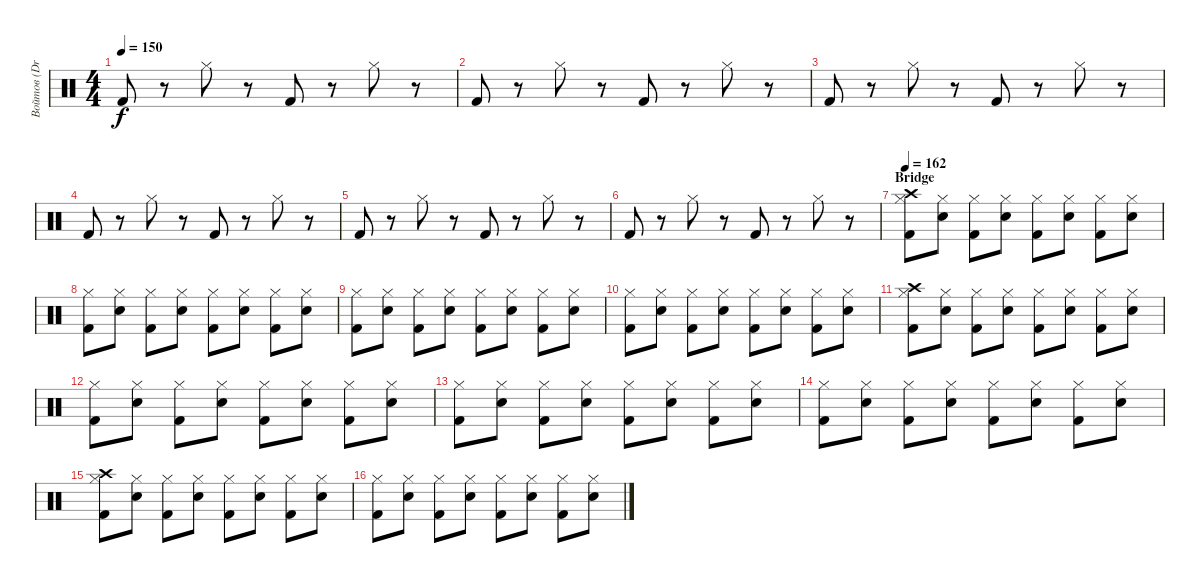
\track ("Войтов (Drums)" "Войтов (Dr") {instrument percussion}
\staff {score}
\articulation defaults
\ts (4 4)
\tempo 150
\clef neutral
\ks c "Kick (hit) 2".8{dy f}
r.8 "Hi-Hat (closed)".8 r.8 "Kick (hit) 2".8 r.8 "Hi-Hat (closed)".8 r.8 |
"Kick (hit) 2".8 r.8 "Hi-Hat (closed)".8 r.8 "Kick (hit) 2".8 r.8 "Hi-Hat (closed)".8 r.8 |
"Kick (hit) 2".8 r.8 "Hi-Hat (closed)".8 r.8 "Kick (hit) 2".8 r.8 "Hi-Hat (closed)".8 r.8 |
"Kick (hit) 2".8 r.8 "Hi-Hat (closed)".8 r.8 "Kick (hit) 2".8 r.8 "Hi-Hat (closed)".8 r.8 |
"Kick (hit) 2".8 r.8 "Hi-Hat (closed)".8 r.8 "Kick (hit) 2".8 r.8 "Hi-Hat (closed)".8 r.8 |
"Kick (hit) 2".8 r.8 "Hi-Hat (closed)".8 r.8 "Kick (hit) 2".8 r.8 "Hi-Hat (closed)".8 r.8 |
\section ("" "Bridge")
\tempo 162
("Hi-Hat (closed)" "Kick (hit) 2" "Crash high (hit)").8 ("Hi-Hat (closed)" "Electric Snare (hit)").8 ("Hi-Hat (closed)" "Kick (hit) 2").8 ("Hi-Hat (closed)" "Electric Snare (hit)").8 ("Hi-Hat (closed)" "Kick (hit) 2").8 ("Hi-Hat (closed)" "Electric Snare (hit)").8 ("Hi-Hat (closed)" "Kick (hit) 2").8 ("Hi-Hat (closed)" "Electric Snare (hit)").8 |
("Hi-Hat (closed)" "Kick (hit) 2").8 ("Hi-Hat (closed)" "Electric Snare (hit)").8 ("Hi-Hat (closed)" "Kick (hit) 2").8 ("Hi-Hat (closed)" "Electric Snare (hit)").8 ("Hi-Hat (closed)" "Kick (hit) 2").8 ("Hi-Hat (closed)" "Electric Snare (hit)").8 ("Hi-Hat (closed)" "Kick (hit) 2").8 ("Hi-Hat (closed)" "Electric Snare (hit)").8 |
("Hi-Hat (closed)" "Kick (hit) 2").8 ("Hi-Hat (closed)" "Electric Snare (hit)").8 ("Hi-Hat (closed)" "Kick (hit) 2").8 ("Hi-Hat (closed)" "Electric Snare (hit)").8 ("Hi-Hat (closed)" "Kick (hit) 2").8 ("Hi-Hat (closed)" "Electric Snare (hit)").8 ("Hi-Hat (closed)" "Kick (hit) 2").8 ("Hi-Hat (closed)" "Electric Snare (hit)").8 |
("Hi-Hat (closed)" "Kick (hit) 2").8 ("Hi-Hat (closed)" "Electric Snare (hit)").8 ("Hi-Hat (closed)" "Kick (hit) 2").8 ("Hi-Hat (closed)" "Electric Snare (hit)").8 ("Hi-Hat (closed)" "Kick (hit) 2").8 ("Hi-Hat (closed)" "Electric Snare (hit)").8 ("Hi-Hat (closed)" "Kick (hit) 2").8 ("Hi-Hat (closed)" "Electric Snare (hit)").8 |
("Hi-Hat (closed)" "Kick (hit) 2" "Crash high (hit)").8 ("Hi-Hat (closed)" "Electric Snare (hit)").8 ("Hi-Hat (closed)" "Kick (hit) 2").8 ("Hi-Hat (closed)" "Electric Snare (hit)").8 ("Hi-Hat (closed)" "Kick (hit) 2").8 ("Hi-Hat (closed)" "Electric Snare (hit)").8 ("Hi-Hat (closed)" "Kick (hit) 2").8 ("Hi-Hat (closed)" "Electric Snare (hit)").8 |
("Hi-Hat (closed)" "Kick (hit) 2").8 ("Hi-Hat (closed)" "Electric Snare (hit)").8 ("Hi-Hat (closed)" "Kick (hit) 2").8 ("Hi-Hat (closed)" "Electric Snare (hit)").8 ("Hi-Hat (closed)" "Kick (hit) 2").8 ("Hi-Hat (closed)" "Electric Snare (hit)").8 ("Hi-Hat (closed)" "Kick (hit) 2").8 ("Hi-Hat (closed)" "Electric Snare (hit)").8 |
("Hi-Hat (closed)" "Kick (hit) 2").8 ("Hi-Hat (closed)" "Electric Snare (hit)").8 ("Hi-Hat (closed)" "Kick (hit) 2").8 ("Hi-Hat (closed)" "Electric Snare (hit)").8 ("Hi-Hat (closed)" "Kick (hit) 2").8 ("Hi-Hat (closed)" "Electric Snare (hit)").8 ("Hi-Hat (closed)" "Kick (hit) 2").8 ("Hi-Hat (closed)" "Electric Snare (hit)").8 |
("Hi-Hat (closed)" "Kick (hit) 2").8 ("Hi-Hat (closed)" "Electric Snare (hit)").8 ("Hi-Hat (closed)" "Kick (hit) 2").8 ("Hi-Hat (closed)" "Electric Snare (hit)").8 ("Hi-Hat (closed)" "Kick (hit) 2").8 ("Hi-Hat (closed)" "Electric Snare (hit)").8 ("Hi-Hat (closed)" "Kick (hit) 2").8 ("Hi-Hat (closed)" "Electric Snare (hit)").8 |
("Hi-Hat (closed)" "Kick (hit) 2" "Crash high (hit)").8 ("Hi-Hat (closed)" "Electric Snare (hit)").8 ("Hi-Hat (closed)" "Kick (hit) 2").8 ("Hi-Hat (closed)" "Electric Snare (hit)").8 ("Hi-Hat (closed)" "Kick (hit) 2").8 ("Hi-Hat (closed)" "Electric Snare (hit)").8 ("Hi-Hat (closed)" "Kick (hit) 2").8 ("Hi-Hat (closed)" "Electric Snare (hit)").8 |
("Hi-Hat (closed)" "Kick (hit) 2").8 ("Hi-Hat (closed)" "Electric Snare (hit)").8 ("Hi-Hat (closed)" "Kick (hit) 2").8 ("Hi-Hat (closed)" "Electric Snare (hit)").8 ("Hi-Hat (closed)" "Kick (hit) 2").8 ("Hi-Hat (closed)" "Electric Snare (hit)").8 ("Hi-Hat (closed)" "Kick (hit) 2").8 ("Hi-Hat (closed)" "Electric Snare (hit)").8
